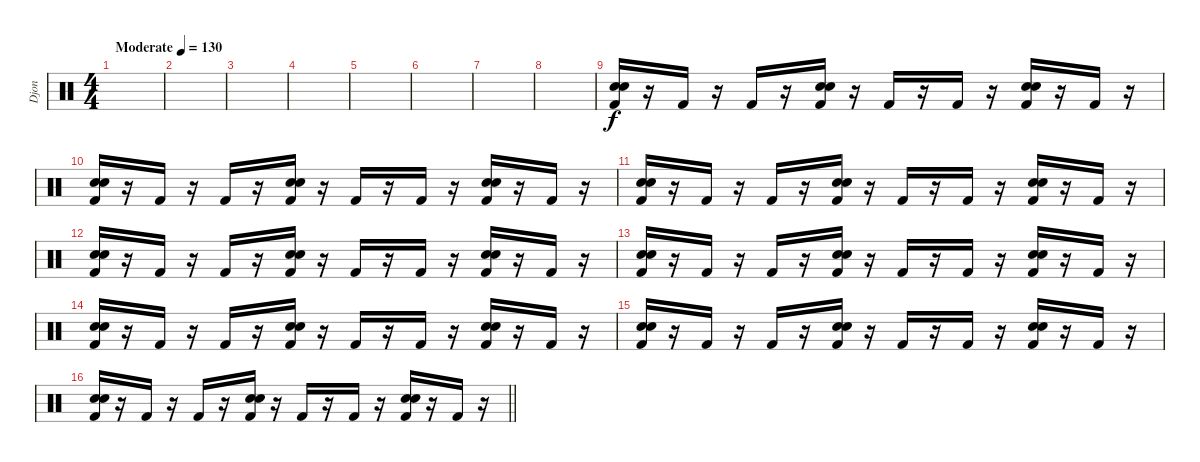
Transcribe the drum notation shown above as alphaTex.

\track ("Djon" "Djon") {instrument percussion}
\staff {score}
\articulation defaults
\ts (4 4)
\tempo (130 "Moderate")
\clef neutral
\ks c
|
|
|
|
|
|
|
|
("Snare (hit) 2" "Electric Snare (hit)" "Kick (hit) 2").16 r.16 "Kick (hit) 2".16 r.16 "Kick (hit) 2".16 r.16 ("Snare (hit) 2" "Electric Snare (hit)" "Kick (hit) 2").16 r.16 "Kick (hit) 2".16 r.16 "Kick (hit) 2".16 r.16 ("Snare (hit) 2" "Electric Snare (hit)" "Kick (hit) 2").16 r.16 "Kick (hit) 2".16 r.16 |
("Snare (hit) 2" "Electric Snare (hit)" "Kick (hit) 2").16 r.16 "Kick (hit) 2".16 r.16 "Kick (hit) 2".16 r.16 ("Snare (hit) 2" "Electric Snare (hit)" "Kick (hit) 2").16 r.16 "Kick (hit) 2".16 r.16 "Kick (hit) 2".16 r.16 ("Snare (hit) 2" "Electric Snare (hit)" "Kick (hit) 2").16 r.16 "Kick (hit) 2".16 r.16 |
("Snare (hit) 2" "Electric Snare (hit)" "Kick (hit) 2").16 r.16 "Kick (hit) 2".16 r.16 "Kick (hit) 2".16 r.16 ("Snare (hit) 2" "Electric Snare (hit)" "Kick (hit) 2").16 r.16 "Kick (hit) 2".16 r.16 "Kick (hit) 2".16 r.16 ("Snare (hit) 2" "Electric Snare (hit)" "Kick (hit) 2").16 r.16 "Kick (hit) 2".16 r.16 |
("Snare (hit) 2" "Electric Snare (hit)" "Kick (hit) 2").16 r.16 "Kick (hit) 2".16 r.16 "Kick (hit) 2".16 r.16 ("Snare (hit) 2" "Electric Snare (hit)" "Kick (hit) 2").16 r.16 "Kick (hit) 2".16 r.16 "Kick (hit) 2".16 r.16 ("Snare (hit) 2" "Electric Snare (hit)" "Kick (hit) 2").16 r.16 "Kick (hit) 2".16 r.16 |
("Snare (hit) 2" "Electric Snare (hit)" "Kick (hit) 2").16 r.16 "Kick (hit) 2".16 r.16 "Kick (hit) 2".16 r.16 ("Snare (hit) 2" "Electric Snare (hit)" "Kick (hit) 2").16 r.16 "Kick (hit) 2".16 r.16 "Kick (hit) 2".16 r.16 ("Snare (hit) 2" "Electric Snare (hit)" "Kick (hit) 2").16 r.16 "Kick (hit) 2".16 r.16 |
("Snare (hit) 2" "Electric Snare (hit)" "Kick (hit) 2").16 r.16 "Kick (hit) 2".16 r.16 "Kick (hit) 2".16 r.16 ("Snare (hit) 2" "Electric Snare (hit)" "Kick (hit) 2").16 r.16 "Kick (hit) 2".16 r.16 "Kick (hit) 2".16 r.16 ("Snare (hit) 2" "Electric Snare (hit)" "Kick (hit) 2").16 r.16 "Kick (hit) 2".16 r.16 |
("Snare (hit) 2" "Electric Snare (hit)" "Kick (hit) 2").16 r.16 "Kick (hit) 2".16 r.16 "Kick (hit) 2".16 r.16 ("Snare (hit) 2" "Electric Snare (hit)" "Kick (hit) 2").16 r.16 "Kick (hit) 2".16 r.16 "Kick (hit) 2".16 r.16 ("Snare (hit) 2" "Electric Snare (hit)" "Kick (hit) 2").16 r.16 "Kick (hit) 2".16 r.16 |
\barLineRight lightlight
("Snare (hit) 2" "Electric Snare (hit)" "Kick (hit) 2").16 r.16 "Kick (hit) 2".16 r.16 "Kick (hit) 2".16 r.16 ("Snare (hit) 2" "Electric Snare (hit)" "Kick (hit) 2").16 r.16 "Kick (hit) 2".16 r.16 "Kick (hit) 2".16 r.16 ("Snare (hit) 2" "Electric Snare (hit)" "Kick (hit) 2").16 r.16 "Kick (hit) 2".16 r.16
